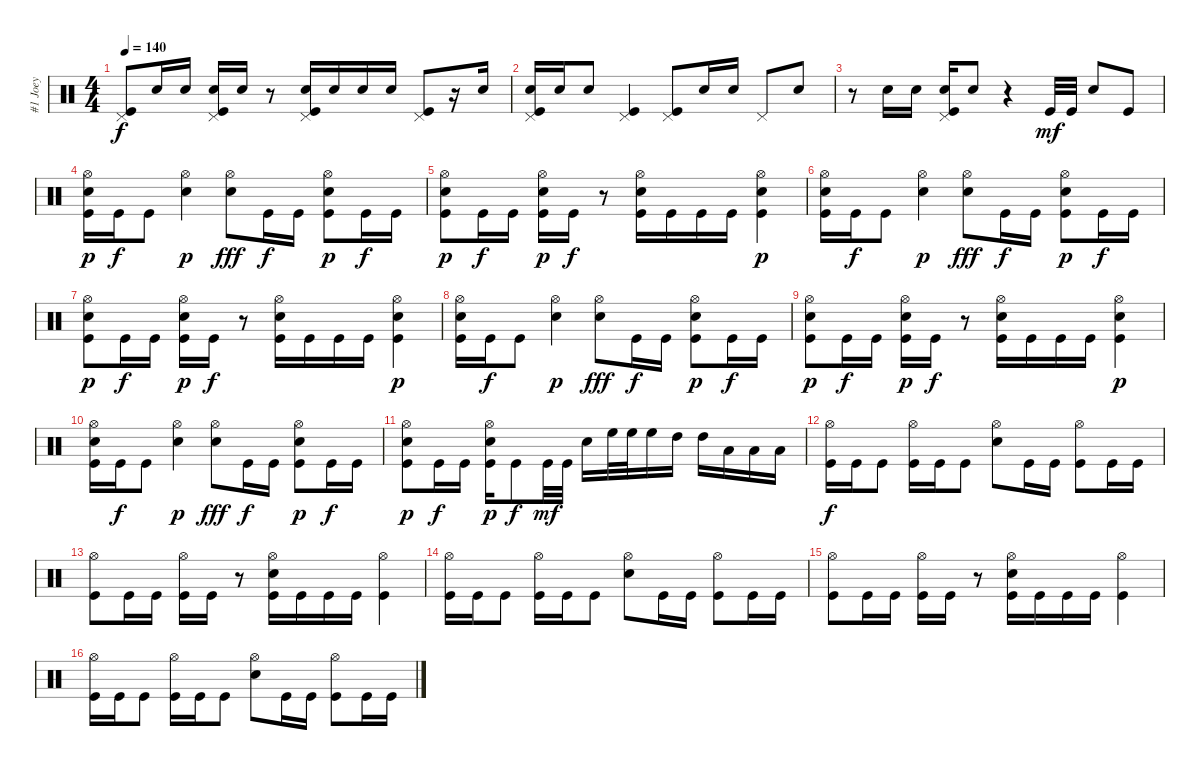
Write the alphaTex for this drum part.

\track ("#1 Joey" "#1 Joey") {solo instrument percussion}
\staff {score}
\articulation defaults
\ts (4 4)
\tempo 140
\clef neutral
\ks c
("Pedal Hi-Hat (hit)" "Kick (hit)").8{dy f} "Electric Snare (hit)".16 "Electric Snare (hit)".16 ("Pedal Hi-Hat (hit)" "Electric Snare (hit)" "Kick (hit)").16 "Electric Snare (hit)".16 r.8 ("Pedal Hi-Hat (hit)" "Electric Snare (hit)" "Kick (hit)").16 "Electric Snare (hit)".16 "Electric Snare (hit)".16 "Electric Snare (hit)".16 ("Pedal Hi-Hat (hit)" "Kick (hit)").8 r.16 "Electric Snare (hit)".16 |
("Pedal Hi-Hat (hit)" "Electric Snare (hit)" "Kick (hit)").16 "Electric Snare (hit)".16 "Electric Snare (hit)".8 ("Pedal Hi-Hat (hit)" "Kick (hit)").4 ("Pedal Hi-Hat (hit)" "Kick (hit)").8 "Electric Snare (hit)".16 "Electric Snare (hit)".16 "Pedal Hi-Hat (hit)".8 "Electric Snare (hit)".8 |
r.8 "Electric Snare (hit)".16 "Electric Snare (hit)".16 ("Pedal Hi-Hat (hit)" "Electric Snare (hit)" "Kick (hit)").16 "Electric Snare (hit)".8 r.4 "Kick (hit)".32{dy mf} "Kick (hit)".32 "Electric Snare (hit)".8 "Kick (hit)".8 |
("Hi-Hat (open)" "Electric Snare (hit)" "Kick (hit)").16{dy p} "Kick (hit)".16{dy f} "Kick (hit)".8 ("Hi-Hat (open)" "Electric Snare (hit)").4{dy p} ("Hi-Hat (open)" "Electric Snare (hit)").8{dy fff} "Kick (hit)".16{dy f} "Kick (hit)".16 ("Hi-Hat (open)" "Electric Snare (hit)" "Kick (hit)").8{dy p} "Kick (hit)".16{dy f} "Kick (hit)".16 |
("Hi-Hat (open)" "Electric Snare (hit)" "Kick (hit)").8{dy p} "Kick (hit)".16{dy f} "Kick (hit)".16 ("Hi-Hat (open)" "Electric Snare (hit)" "Kick (hit)").16{dy p} "Kick (hit)".16{dy f} r.8 ("Hi-Hat (open)" "Electric Snare (hit)" "Kick (hit)").16 "Kick (hit)".16 "Kick (hit)".16 "Kick (hit)".16 ("Hi-Hat (open)" "Electric Snare (hit)" "Kick (hit)").4{dy p} |
("Hi-Hat (open)" "Electric Snare (hit)" "Kick (hit)").16 "Kick (hit)".16{dy f} "Kick (hit)".8 ("Hi-Hat (open)" "Electric Snare (hit)").4{dy p} ("Hi-Hat (open)" "Electric Snare (hit)").8{dy fff} "Kick (hit)".16{dy f} "Kick (hit)".16 ("Hi-Hat (open)" "Electric Snare (hit)" "Kick (hit)").8{dy p} "Kick (hit)".16{dy f} "Kick (hit)".16 |
("Hi-Hat (open)" "Electric Snare (hit)" "Kick (hit)").8{dy p} "Kick (hit)".16{dy f} "Kick (hit)".16 ("Hi-Hat (open)" "Electric Snare (hit)" "Kick (hit)").16{dy p} "Kick (hit)".16{dy f} r.8 ("Hi-Hat (open)" "Electric Snare (hit)" "Kick (hit)").16 "Kick (hit)".16 "Kick (hit)".16 "Kick (hit)".16 ("Hi-Hat (open)" "Electric Snare (hit)" "Kick (hit)").4{dy p} |
("Hi-Hat (open)" "Electric Snare (hit)" "Kick (hit)").16 "Kick (hit)".16{dy f} "Kick (hit)".8 ("Hi-Hat (open)" "Electric Snare (hit)").4{dy p} ("Hi-Hat (open)" "Electric Snare (hit)").8{dy fff} "Kick (hit)".16{dy f} "Kick (hit)".16 ("Hi-Hat (open)" "Electric Snare (hit)" "Kick (hit)").8{dy p} "Kick (hit)".16{dy f} "Kick (hit)".16 |
("Hi-Hat (open)" "Electric Snare (hit)" "Kick (hit)").8{dy p} "Kick (hit)".16{dy f} "Kick (hit)".16 ("Hi-Hat (open)" "Electric Snare (hit)" "Kick (hit)").16{dy p} "Kick (hit)".16{dy f} r.8 ("Hi-Hat (open)" "Electric Snare (hit)" "Kick (hit)").16 "Kick (hit)".16 "Kick (hit)".16 "Kick (hit)".16 ("Hi-Hat (open)" "Electric Snare (hit)" "Kick (hit)").4{dy p} |
("Hi-Hat (open)" "Electric Snare (hit)" "Kick (hit)").16 "Kick (hit)".16{dy f} "Kick (hit)".8 ("Hi-Hat (open)" "Electric Snare (hit)").4{dy p} ("Hi-Hat (open)" "Electric Snare (hit)").8{dy fff} "Kick (hit)".16{dy f} "Kick (hit)".16 ("Hi-Hat (open)" "Electric Snare (hit)" "Kick (hit)").8{dy p} "Kick (hit)".16{dy f} "Kick (hit)".16 |
("Hi-Hat (open)" "Electric Snare (hit)" "Kick (hit)").8{dy p} "Kick (hit)".16{dy f} "Kick (hit)".16 ("Hi-Hat (open)" "Electric Snare (hit)" "Kick (hit)").16{dy p} "Kick (hit)".8{dy f} "Kick (hit)".32{dy mf} "Kick (hit)".32 "Electric Snare (hit)".16 "High Floor Tom (hit)".32 "High Floor Tom (hit)".32 "High Floor Tom (hit)".16 "High Tom (hit)".16 "High Tom (hit)".16 "Low Tom (hit)".16 "Low Tom (hit)".16 "Low Floor Tom (hit)".16 |
("Hi-Hat (open)" "Kick (hit)").16{dy f} "Kick (hit)".16 "Kick (hit)".8 ("Hi-Hat (open)" "Kick (hit)").16 "Kick (hit)".16 "Kick (hit)".8 ("Hi-Hat (open)" "Electric Snare (hit)").8 "Kick (hit)".16 "Kick (hit)".16 ("Hi-Hat (open)" "Kick (hit)").8 "Kick (hit)".16 "Kick (hit)".16 |
("Hi-Hat (open)" "Kick (hit)").8 "Kick (hit)".16 "Kick (hit)".16 ("Hi-Hat (open)" "Kick (hit)").16 "Kick (hit)".16 r.8 ("Hi-Hat (open)" "Electric Snare (hit)" "Kick (hit)").16 "Kick (hit)".16 "Kick (hit)".16 "Kick (hit)".16 ("Hi-Hat (open)" "Kick (hit)").4 |
("Hi-Hat (open)" "Kick (hit)").16 "Kick (hit)".16 "Kick (hit)".8 ("Hi-Hat (open)" "Kick (hit)").16 "Kick (hit)".16 "Kick (hit)".8 ("Hi-Hat (open)" "Electric Snare (hit)").8 "Kick (hit)".16 "Kick (hit)".16 ("Hi-Hat (open)" "Kick (hit)").8 "Kick (hit)".16 "Kick (hit)".16 |
("Hi-Hat (open)" "Kick (hit)").8 "Kick (hit)".16 "Kick (hit)".16 ("Hi-Hat (open)" "Kick (hit)").16 "Kick (hit)".16 r.8 ("Hi-Hat (open)" "Electric Snare (hit)" "Kick (hit)").16 "Kick (hit)".16 "Kick (hit)".16 "Kick (hit)".16 ("Hi-Hat (open)" "Kick (hit)").4 |
("Hi-Hat (open)" "Kick (hit)").16 "Kick (hit)".16 "Kick (hit)".8 ("Hi-Hat (open)" "Kick (hit)").16 "Kick (hit)".16 "Kick (hit)".8 ("Hi-Hat (open)" "Electric Snare (hit)").8 "Kick (hit)".16 "Kick (hit)".16 ("Hi-Hat (open)" "Kick (hit)").8 "Kick (hit)".16 "Kick (hit)".16
